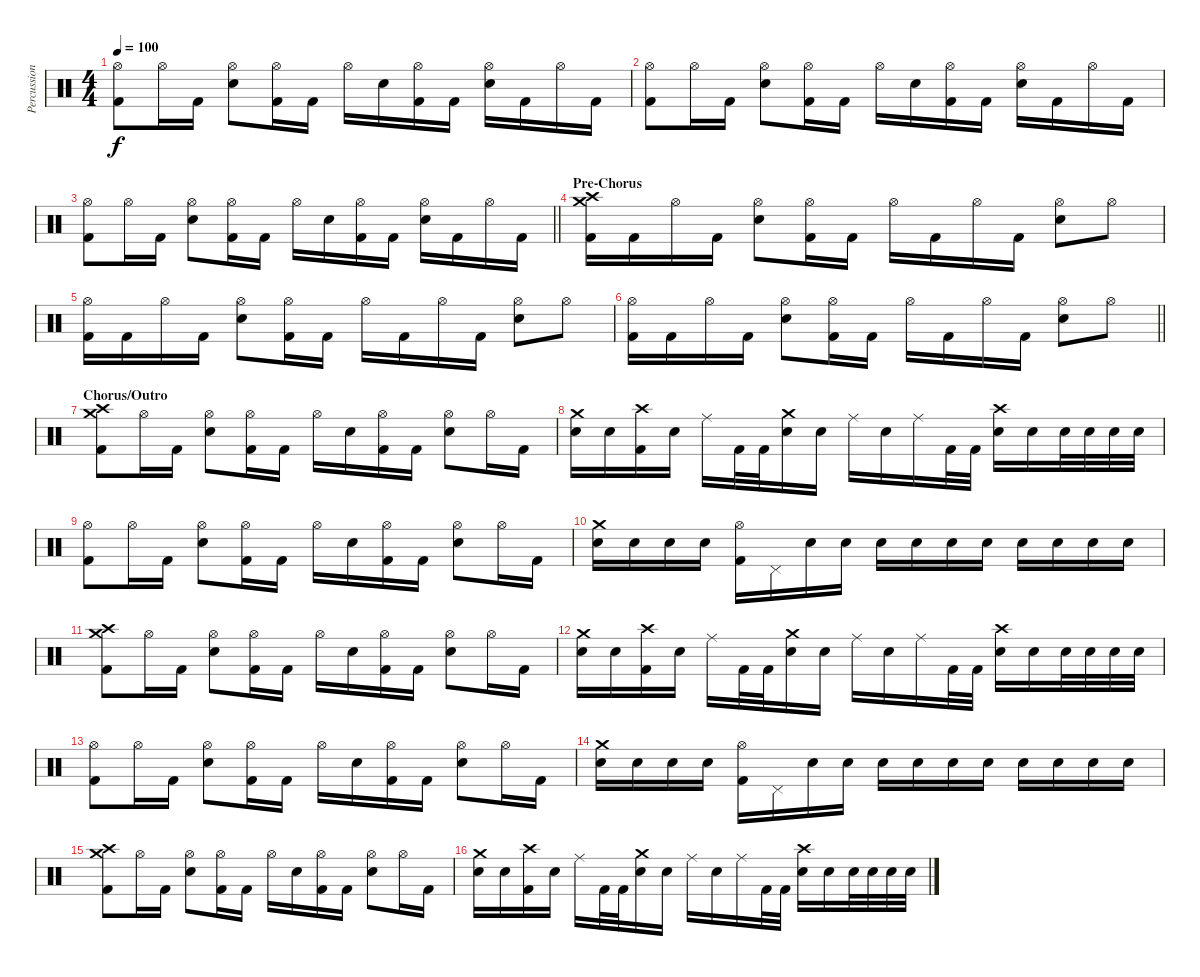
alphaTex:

\track ("Percussion" "Percussion") {instrument percussion}
\staff {score}
\articulation defaults
\ts (4 4)
\tempo 100
\clef neutral
\ks c
("Hi-Hat (open)" "Kick (hit) 2").8{dy f} "Hi-Hat (open)".16 "Kick (hit) 2".16 ("Hi-Hat (open)" "Electric Snare (hit)").8 ("Hi-Hat (open)" "Kick (hit) 2").16 "Kick (hit) 2".16 "Hi-Hat (open)".16 "Electric Snare (hit)".16 ("Hi-Hat (open)" "Kick (hit) 2").16 "Kick (hit) 2".16 ("Hi-Hat (open)" "Electric Snare (hit)").16 "Kick (hit) 2".16 "Hi-Hat (open)".16 "Kick (hit) 2".16 |
("Hi-Hat (open)" "Kick (hit) 2").8 "Hi-Hat (open)".16 "Kick (hit) 2".16 ("Hi-Hat (open)" "Electric Snare (hit)").8 ("Hi-Hat (open)" "Kick (hit) 2").16 "Kick (hit) 2".16 "Hi-Hat (open)".16 "Electric Snare (hit)".16 ("Hi-Hat (open)" "Kick (hit) 2").16 "Kick (hit) 2".16 ("Hi-Hat (open)" "Electric Snare (hit)").16 "Kick (hit) 2".16 "Hi-Hat (open)".16 "Kick (hit) 2".16 |
\barLineRight lightlight
("Hi-Hat (open)" "Kick (hit) 2").8 "Hi-Hat (open)".16 "Kick (hit) 2".16 ("Hi-Hat (open)" "Electric Snare (hit)").8 ("Hi-Hat (open)" "Kick (hit) 2").16 "Kick (hit) 2".16 "Hi-Hat (open)".16 "Electric Snare (hit)".16 ("Hi-Hat (open)" "Kick (hit) 2").16 "Kick (hit) 2".16 ("Hi-Hat (open)" "Electric Snare (hit)").16 "Kick (hit) 2".16 "Hi-Hat (open)".16 "Kick (hit) 2".16 |
\section ("" "Pre-Chorus")
("Crash medium (hit)" "Crash high (hit)" "Kick (hit) 2").16 "Kick (hit) 2".16 "Hi-Hat (open)".16 "Kick (hit) 2".16 ("Hi-Hat (open)" "Electric Snare (hit)").8 ("Hi-Hat (open)" "Kick (hit) 2").16 "Kick (hit) 2".16 "Hi-Hat (open)".16 "Kick (hit) 2".16 "Hi-Hat (open)".16 "Kick (hit) 2".16 ("Hi-Hat (open)" "Electric Snare (hit)").8 "Hi-Hat (open)".8 |
("Hi-Hat (open)" "Kick (hit) 2").16 "Kick (hit) 2".16 "Hi-Hat (open)".16 "Kick (hit) 2".16 ("Hi-Hat (open)" "Electric Snare (hit)").8 ("Hi-Hat (open)" "Kick (hit) 2").16 "Kick (hit) 2".16 "Hi-Hat (open)".16 "Kick (hit) 2".16 "Hi-Hat (open)".16 "Kick (hit) 2".16 ("Hi-Hat (open)" "Electric Snare (hit)").8 "Hi-Hat (open)".8 |
\barLineRight lightlight
("Hi-Hat (open)" "Kick (hit) 2").16 "Kick (hit) 2".16 "Hi-Hat (open)".16 "Kick (hit) 2".16 ("Hi-Hat (open)" "Electric Snare (hit)").8 ("Hi-Hat (open)" "Kick (hit) 2").16 "Kick (hit) 2".16 "Hi-Hat (open)".16 "Kick (hit) 2".16 "Hi-Hat (open)".16 "Kick (hit) 2".16 ("Hi-Hat (open)" "Electric Snare (hit)").8 "Hi-Hat (open)".8 |
\section ("" "Chorus/Outro")
("Crash medium (hit)" "Crash high (hit)" "Kick (hit) 2").8 "Hi-Hat (open)".16 "Kick (hit) 2".16 ("Hi-Hat (open)" "Electric Snare (hit)").8 ("Hi-Hat (open)" "Kick (hit) 2").16 "Kick (hit) 2".16 "Hi-Hat (open)".16 "Electric Snare (hit)".16 ("Hi-Hat (open)" "Kick (hit) 2").16 "Kick (hit) 2".16 ("Hi-Hat (open)" "Electric Snare (hit)").8 "Hi-Hat (open)".16 "Kick (hit) 2".16 |
("Crash medium (hit)" "Electric Snare (hit)").16 "Electric Snare (hit)".16 ("Crash high (hit)" "Kick (hit) 2").16 "Electric Snare (hit)".16 "Ride (middle)".16 "Kick (hit) 2".32 "Kick (hit) 2".32 ("Crash medium (hit)" "Electric Snare (hit)").16 "Electric Snare (hit)".16 "Ride (middle)".16 "Electric Snare (hit)".16 "Ride (middle)".16 "Kick (hit) 2".32 "Kick (hit) 2".32 ("Crash high (hit)" "Electric Snare (hit)").16 "Electric Snare (hit)".16 "Electric Snare (hit)".32 "Electric Snare (hit)".32 "Electric Snare (hit)".32 "Electric Snare (hit)".32 |
("Hi-Hat (open)" "Kick (hit) 2").8 "Hi-Hat (open)".16 "Kick (hit) 2".16 ("Hi-Hat (open)" "Electric Snare (hit)").8 ("Hi-Hat (open)" "Kick (hit) 2").16 "Kick (hit) 2".16 "Hi-Hat (open)".16 "Electric Snare (hit)".16 ("Hi-Hat (open)" "Kick (hit) 2").16 "Kick (hit) 2".16 ("Hi-Hat (open)" "Electric Snare (hit)").8 "Hi-Hat (open)".16 "Kick (hit) 2".16 |
("Crash medium (hit)" "Electric Snare (hit)").16 "Electric Snare (hit)".16 "Electric Snare (hit)".16 "Electric Snare (hit)".16 ("Hi-Hat (open)" "Kick (hit) 2").16 "Pedal Hi-Hat (hit)".16 "Electric Snare (hit)".16 "Electric Snare (hit)".16 "Electric Snare (hit)".16 "Electric Snare (hit)".16 "Electric Snare (hit)".16 "Electric Snare (hit)".16 "Electric Snare (hit)".16 "Electric Snare (hit)".16 "Electric Snare (hit)".16 "Electric Snare (hit)".16 |
("Crash medium (hit)" "Crash high (hit)" "Kick (hit) 2").8 "Hi-Hat (open)".16 "Kick (hit) 2".16 ("Hi-Hat (open)" "Electric Snare (hit)").8 ("Hi-Hat (open)" "Kick (hit) 2").16 "Kick (hit) 2".16 "Hi-Hat (open)".16 "Electric Snare (hit)".16 ("Hi-Hat (open)" "Kick (hit) 2").16 "Kick (hit) 2".16 ("Hi-Hat (open)" "Electric Snare (hit)").8 "Hi-Hat (open)".16 "Kick (hit) 2".16 |
("Crash medium (hit)" "Electric Snare (hit)").16 "Electric Snare (hit)".16 ("Crash high (hit)" "Kick (hit) 2").16 "Electric Snare (hit)".16 "Ride (middle)".16 "Kick (hit) 2".32 "Kick (hit) 2".32 ("Crash medium (hit)" "Electric Snare (hit)").16 "Electric Snare (hit)".16 "Ride (middle)".16 "Electric Snare (hit)".16 "Ride (middle)".16 "Kick (hit) 2".32 "Kick (hit) 2".32 ("Crash high (hit)" "Electric Snare (hit)").16 "Electric Snare (hit)".16 "Electric Snare (hit)".32 "Electric Snare (hit)".32 "Electric Snare (hit)".32 "Electric Snare (hit)".32 |
("Hi-Hat (open)" "Kick (hit) 2").8 "Hi-Hat (open)".16 "Kick (hit) 2".16 ("Hi-Hat (open)" "Electric Snare (hit)").8 ("Hi-Hat (open)" "Kick (hit) 2").16 "Kick (hit) 2".16 "Hi-Hat (open)".16 "Electric Snare (hit)".16 ("Hi-Hat (open)" "Kick (hit) 2").16 "Kick (hit) 2".16 ("Hi-Hat (open)" "Electric Snare (hit)").8 "Hi-Hat (open)".16 "Kick (hit) 2".16 |
("Crash medium (hit)" "Electric Snare (hit)").16 "Electric Snare (hit)".16 "Electric Snare (hit)".16 "Electric Snare (hit)".16 ("Hi-Hat (open)" "Kick (hit) 2").16 "Pedal Hi-Hat (hit)".16 "Electric Snare (hit)".16 "Electric Snare (hit)".16 "Electric Snare (hit)".16 "Electric Snare (hit)".16 "Electric Snare (hit)".16 "Electric Snare (hit)".16 "Electric Snare (hit)".16 "Electric Snare (hit)".16 "Electric Snare (hit)".16 "Electric Snare (hit)".16 |
("Crash medium (hit)" "Crash high (hit)" "Kick (hit) 2").8 "Hi-Hat (open)".16 "Kick (hit) 2".16 ("Hi-Hat (open)" "Electric Snare (hit)").8 ("Hi-Hat (open)" "Kick (hit) 2").16 "Kick (hit) 2".16 "Hi-Hat (open)".16 "Electric Snare (hit)".16 ("Hi-Hat (open)" "Kick (hit) 2").16 "Kick (hit) 2".16 ("Hi-Hat (open)" "Electric Snare (hit)").8 "Hi-Hat (open)".16 "Kick (hit) 2".16 |
("Crash medium (hit)" "Electric Snare (hit)").16 "Electric Snare (hit)".16 ("Crash high (hit)" "Kick (hit) 2").16 "Electric Snare (hit)".16 "Ride (middle)".16 "Kick (hit) 2".32 "Kick (hit) 2".32 ("Crash medium (hit)" "Electric Snare (hit)").16 "Electric Snare (hit)".16 "Ride (middle)".16 "Electric Snare (hit)".16 "Ride (middle)".16 "Kick (hit) 2".32 "Kick (hit) 2".32 ("Crash high (hit)" "Electric Snare (hit)").16 "Electric Snare (hit)".16 "Electric Snare (hit)".32 "Electric Snare (hit)".32 "Electric Snare (hit)".32 "Electric Snare (hit)".32
